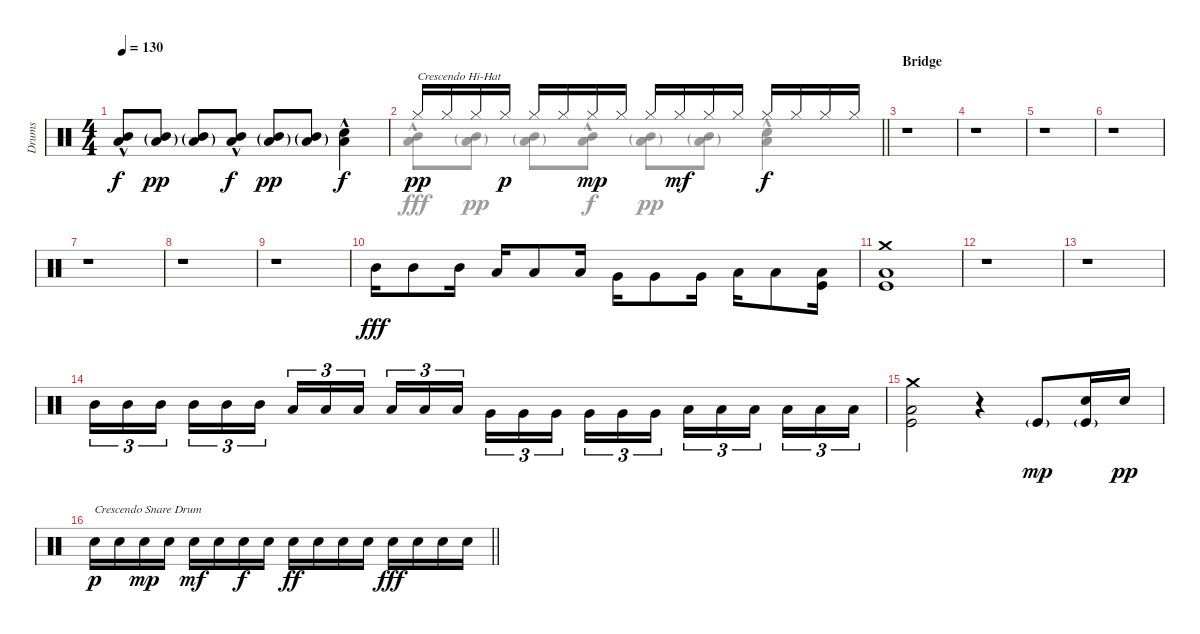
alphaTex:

\track ("Drums" "Drums") {instrument percussion}
\staff {score}
\articulation defaults
\voice
\ts (4 4)
\tempo 130
\clef neutral
\ks c
("Mid Tom (hit)"{hac} "Low Tom (hit)"{hac}).8{dy f} ("Mid Tom (hit)"{g} "Low Tom (hit)"{g}).8{dy pp} ("Mid Tom (hit)"{g} "Low Tom (hit)"{g}).8 ("Mid Tom (hit)"{hac} "Low Tom (hit)"{hac}).8{dy f} ("Mid Tom (hit)"{g} "Low Tom (hit)"{g}).8{dy pp} ("Mid Tom (hit)"{g} "Low Tom (hit)"{g}).8 ("Electric Snare (hit)"{hac} "Low Tom (hit)"{hac}).4{dy f} |
\barLineRight lightlight "Hi-Hat (closed)".16{txt "Crescendo Hi-Hat" dy pp} "Hi-Hat (closed)".16 "Hi-Hat (closed)".16 "Hi-Hat (closed)".16{dy p} "Hi-Hat (closed)".16 "Hi-Hat (closed)".16 "Hi-Hat (closed)".16{dy mp} "Hi-Hat (closed)".16 "Hi-Hat (closed)".16 "Hi-Hat (closed)".16{dy mf} "Hi-Hat (closed)".16 "Hi-Hat (closed)".16 "Hi-Hat (closed)".16{dy f} "Hi-Hat (closed)".16 "Hi-Hat (closed)".16 "Hi-Hat (closed)".16
|
\section ("" "Bridge")
r.1 |
r.1 |
r.1 |
r.1 |
r.1 |
r.1 |
r.1 |
"Mid Tom (hit)".16{dy fff beam Down} "Mid Tom (hit)".8{beam Down} "Mid Tom (hit)".16{beam Down} "Low Tom (hit)".16 "Low Tom (hit)".8 "Low Tom (hit)".16 "Very Low Tom (hit)".16{beam Down} "Very Low Tom (hit)".8{beam Down} "Very Low Tom (hit)".16{beam Down} "Low Floor Tom (hit)".16{beam Down} "Low Floor Tom (hit)".8{beam Down} ("Kick (hit)" "Low Floor Tom (hit)").16{beam Down} |
("Crash medium (hit)" "Low Floor Tom (hit)" "Kick (hit)").1 |
r.1 |
r.1 |
"Mid Tom (hit)".16{tu (3 2)} "Mid Tom (hit)".16{tu (3 2)} "Mid Tom (hit)".16{tu (3 2) beam splitsecondary} "Mid Tom (hit)".16{tu (3 2)} "Mid Tom (hit)".16{tu (3 2)} "Mid Tom (hit)".16{tu (3 2)} "Low Tom (hit)".16{tu (3 2)} "Low Tom (hit)".16{tu (3 2)} "Low Tom (hit)".16{tu (3 2) beam splitsecondary} "Low Tom (hit)".16{tu (3 2)} "Low Tom (hit)".16{tu (3 2)} "Low Tom (hit)".16{tu (3 2)} "Very Low Tom (hit)".16{tu (3 2) beam Down} "Very Low Tom (hit)".16{tu (3 2) beam Down} "Very Low Tom (hit)".16{tu (3 2) beam Down beam splitsecondary} "Very Low Tom (hit)".16{tu (3 2) beam Down} "Very Low Tom (hit)".16{tu (3 2) beam Down} "Very Low Tom (hit)".16{tu (3 2) beam Down} "Low Floor Tom (hit)".16{tu (3 2) beam Down} "Low Floor Tom (hit)".16{tu (3 2) beam Down} "Low Floor Tom (hit)".16{tu (3 2) beam Down beam splitsecondary} "Low Floor Tom (hit)".16{tu (3 2) beam Down} "Low Floor Tom (hit)".16{tu (3 2) beam Down} "Low Floor Tom (hit)".16{tu (3 2) beam Down} |
("Crash medium (hit)" "Low Floor Tom (hit)" "Kick (hit)").2 r.4 "Kick (hit)"{g}.8{dy mp} ("Electric Snare (hit)" "Kick (hit)"{g}).16 "Electric Snare (hit)".16{dy pp} |
\barLineRight lightlight "Electric Snare (hit)".16{txt "Crescendo Snare Drum" dy p} "Electric Snare (hit)".16 "Electric Snare (hit)".16{dy mp} "Electric Snare (hit)".16 "Electric Snare (hit)".16{dy mf} "Electric Snare (hit)".16 "Electric Snare (hit)".16{dy f} "Electric Snare (hit)".16 "Electric Snare (hit)".16{dy ff} "Electric Snare (hit)".16 "Electric Snare (hit)".16 "Electric Snare (hit)".16 "Electric Snare (hit)".16{dy fff} "Electric Snare (hit)".16 "Electric Snare (hit)".16 "Electric Snare (hit)".16
\voice
\clef neutral
\ottava regular
\simile none
\ks c
|
\barLineRight lightlight
("Mid Tom (hit)"{hac} "Low Tom (hit)"{hac}).8 ("Mid Tom (hit)"{g} "Low Tom (hit)"{g}).8{dy pp} ("Mid Tom (hit)"{g} "Low Tom (hit)"{g}).8 ("Mid Tom (hit)"{hac} "Low Tom (hit)"{hac}).8{dy f} ("Mid Tom (hit)"{g} "Low Tom (hit)"{g}).8{dy pp} ("Mid Tom (hit)"{g} "Low Tom (hit)"{g}).8 ("Electric Snare (hit)"{hac} "Low Tom (hit)"{hac}).4{dy f} |
|
|
|
|
|
|
|
|
|
|
|
|
|
\barLineRight lightlight
